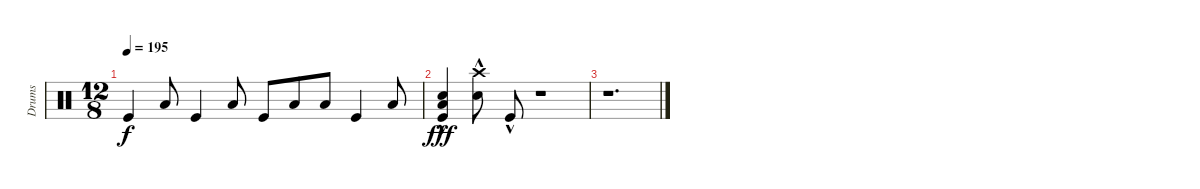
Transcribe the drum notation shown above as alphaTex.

\track ("Drums" "Drums") {instrument percussion}
\staff {score}
\articulation defaults
\ts (12 8)
\tempo 195
\clef neutral
\ks c "Kick (hit)".4{dy f} "Low Tom (hit)".8 "Kick (hit)".4 "Low Tom (hit)".8 "Kick (hit)".8 "Low Tom (hit)".8 "Low Tom (hit)".8 "Kick (hit)".4 "Low Tom (hit)".8
|
("Low Tom (hit)"{hac} "Snare (hit) 2"{hac} "Kick (hit)"{hac}).4{dy fff} ("Crash high (hit)"{hac} "Snare (hit) 2"{hac}).8 "Kick (hit)"{hac}.8 r.1 |
r.1{d}
